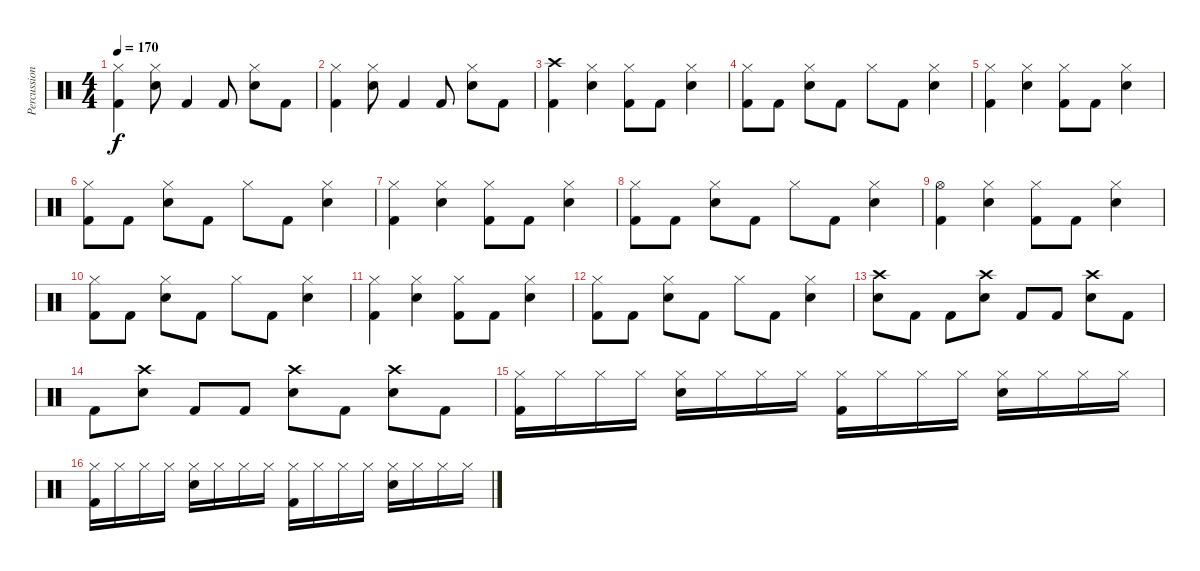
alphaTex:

\track ("Percussions" "Percussion") {instrument percussion}
\staff {score}
\articulation defaults
\ts (4 4)
\tempo 170
\clef neutral
\ks c
("Hi-Hat (closed)" "Kick (hit) 2").4{dy f} ("Snare (hit) 2" "Hi-Hat (closed)").8 "Kick (hit) 2".4 "Kick (hit) 2".8 ("Snare (hit) 2" "Hi-Hat (closed)").8 "Kick (hit) 2".8 |
("Hi-Hat (closed)" "Kick (hit) 2").4 ("Snare (hit) 2" "Hi-Hat (closed)").8 "Kick (hit) 2".4 "Kick (hit) 2".8 ("Snare (hit) 2" "Hi-Hat (closed)").8 "Kick (hit) 2".8 |
("Crash high (hit)" "Kick (hit) 2").4 ("Snare (hit) 2" "Hi-Hat (closed)").4 ("Kick (hit) 2" "Hi-Hat (closed)").8 "Kick (hit) 2".8 ("Snare (hit) 2" "Hi-Hat (closed)").4 |
("Kick (hit) 2" "Hi-Hat (closed)").8 "Kick (hit) 2".8 ("Snare (hit) 2" "Hi-Hat (closed)").8 "Kick (hit) 2".8 "Hi-Hat (closed)".8 "Kick (hit) 2".8 ("Snare (hit) 2" "Hi-Hat (closed)").4 |
("Hi-Hat (closed)" "Kick (hit) 2").4 ("Snare (hit) 2" "Hi-Hat (closed)").4 ("Kick (hit) 2" "Hi-Hat (closed)").8 "Kick (hit) 2".8 ("Snare (hit) 2" "Hi-Hat (closed)").4 |
("Kick (hit) 2" "Hi-Hat (closed)").8 "Kick (hit) 2".8 ("Snare (hit) 2" "Hi-Hat (closed)").8 "Kick (hit) 2".8 "Hi-Hat (closed)".8 "Kick (hit) 2".8 ("Snare (hit) 2" "Hi-Hat (closed)").4 |
("Hi-Hat (closed)" "Kick (hit) 2").4 ("Snare (hit) 2" "Hi-Hat (closed)").4 ("Kick (hit) 2" "Hi-Hat (closed)").8 "Kick (hit) 2".8 ("Snare (hit) 2" "Hi-Hat (closed)").4 |
("Kick (hit) 2" "Hi-Hat (closed)").8 "Kick (hit) 2".8 ("Snare (hit) 2" "Hi-Hat (closed)").8 "Kick (hit) 2".8 "Hi-Hat (closed)".8 "Kick (hit) 2".8 ("Snare (hit) 2" "Hi-Hat (closed)").4 |
("Hi-Hat (open)" "Kick (hit) 2").4 ("Snare (hit) 2" "Hi-Hat (closed)").4 ("Kick (hit) 2" "Hi-Hat (closed)").8 "Kick (hit) 2".8 ("Snare (hit) 2" "Hi-Hat (closed)").4 |
("Kick (hit) 2" "Hi-Hat (closed)").8 "Kick (hit) 2".8 ("Snare (hit) 2" "Hi-Hat (closed)").8 "Kick (hit) 2".8 "Hi-Hat (closed)".8 "Kick (hit) 2".8 ("Snare (hit) 2" "Hi-Hat (closed)").4 |
("Hi-Hat (closed)" "Kick (hit) 2").4 ("Snare (hit) 2" "Hi-Hat (closed)").4 ("Kick (hit) 2" "Hi-Hat (closed)").8 "Kick (hit) 2".8 ("Snare (hit) 2" "Hi-Hat (closed)").4 |
("Kick (hit) 2" "Hi-Hat (closed)").8 "Kick (hit) 2".8 ("Snare (hit) 2" "Hi-Hat (closed)").8 "Kick (hit) 2".8 "Hi-Hat (closed)".8 "Kick (hit) 2".8 ("Snare (hit) 2" "Hi-Hat (closed)").4 |
("Snare (hit) 2" "Crash high (hit)").8 "Kick (hit) 2".8 "Kick (hit) 2".8 ("Snare (hit) 2" "Crash high (hit)").8 "Kick (hit) 2".8 "Kick (hit) 2".8 ("Crash high (hit)" "Snare (hit) 2").8 "Kick (hit) 2".8 |
"Kick (hit) 2".8 ("Crash high (hit)" "Snare (hit) 2").8 "Kick (hit) 2".8 "Kick (hit) 2".8 ("Snare (hit) 2" "Crash high (hit)").8 "Kick (hit) 2".8 ("Snare (hit) 2" "Crash high (hit)").8 "Kick (hit) 2".8 |
("Hi-Hat (closed)" "Kick (hit) 2").16 "Hi-Hat (closed)".16 "Hi-Hat (closed)".16 "Hi-Hat (closed)".16 ("Hi-Hat (closed)" "Snare (hit) 2").16 "Hi-Hat (closed)".16 "Hi-Hat (closed)".16 "Hi-Hat (closed)".16 ("Hi-Hat (closed)" "Kick (hit) 2").16 "Hi-Hat (closed)".16 "Hi-Hat (closed)".16 "Hi-Hat (closed)".16 ("Hi-Hat (closed)" "Snare (hit) 2").16 "Hi-Hat (closed)".16 "Hi-Hat (closed)".16 "Hi-Hat (closed)".16 |
("Hi-Hat (closed)" "Kick (hit) 2").16 "Hi-Hat (closed)".16 "Hi-Hat (closed)".16 "Hi-Hat (closed)".16 ("Hi-Hat (closed)" "Snare (hit) 2").16 "Hi-Hat (closed)".16 "Hi-Hat (closed)".16 "Hi-Hat (closed)".16 ("Hi-Hat (closed)" "Kick (hit) 2").16 "Hi-Hat (closed)".16 "Hi-Hat (closed)".16 "Hi-Hat (closed)".16 ("Hi-Hat (closed)" "Snare (hit) 2").16 "Hi-Hat (closed)".16 "Hi-Hat (closed)".16 "Hi-Hat (closed)".16
